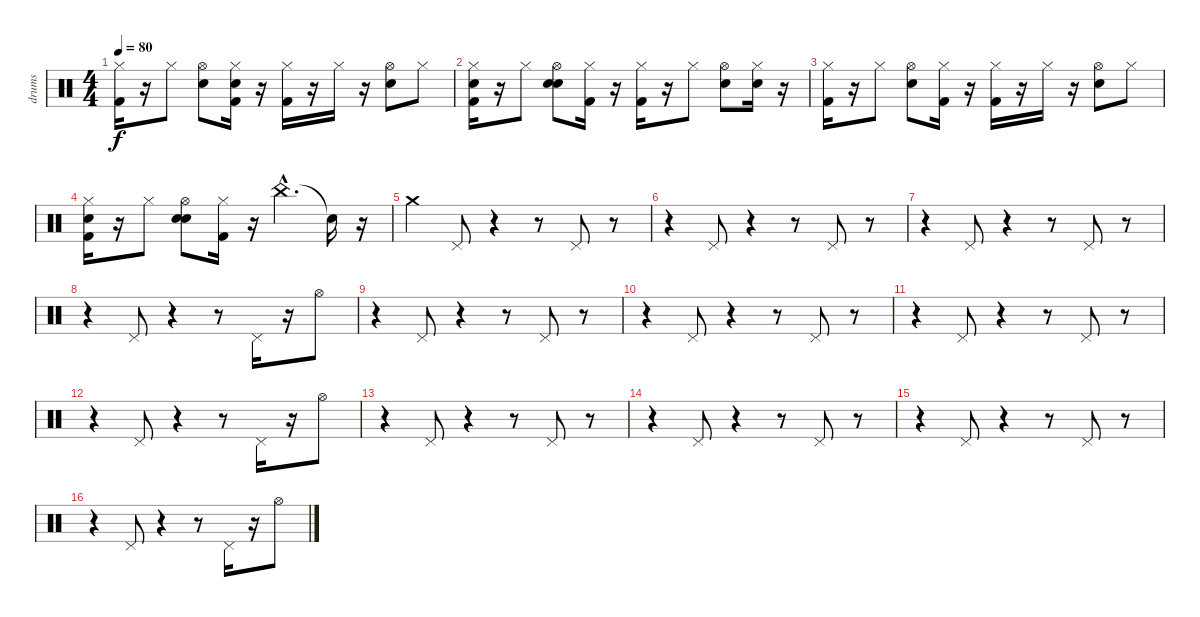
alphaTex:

\track ("drums" "drums") {instrument percussion}
\staff {score}
\articulation defaults
\ts (4 4)
\tempo 80
\clef neutral
\ks c
("Hi-Hat (closed)" "Kick (hit) 2").16{dy f} r.16 "Hi-Hat (closed)".8 ("Hi-Hat (open)" "Snare (hit) 2").8 ("Snare (hit)" "Kick (hit) 2" "Hi-Hat (closed)").16 r.16 ("Kick (hit) 2" "Hi-Hat (closed)").16 r.16 "Hi-Hat (closed)".16 r.16 ("Hi-Hat (open)" "Snare (hit) 2").8 "Hi-Hat (closed)".8 |
("Snare (hit)" "Kick (hit) 2" "Hi-Hat (closed)").16 r.16 "Hi-Hat (closed)".8 ("Snare (hit)" "Hi-Hat (open)" "Snare (hit) 2").8 ("Kick (hit) 2" "Hi-Hat (closed)").16 r.16 ("Hi-Hat (closed)" "Kick (hit) 2").16 r.16 "Hi-Hat (closed)".8 ("Snare (hit) 2" "Hi-Hat (open)").8 ("Snare (hit)" "Hi-Hat (closed)").16 r.16 |
("Kick (hit) 2" "Hi-Hat (closed)").16 r.16 "Hi-Hat (closed)".8 ("Hi-Hat (open)" "Snare (hit) 2").8 ("Kick (hit) 2" "Hi-Hat (closed)").16 r.16 ("Kick (hit) 2" "Hi-Hat (closed)").16 r.16 "Hi-Hat (closed)".16 r.16 ("Snare (hit) 2" "Hi-Hat (open)").8 "Hi-Hat (closed)".8 |
("Snare (hit)" "Hi-Hat (closed)" "Kick (hit) 2").16 r.16 "Hi-Hat (closed)".8 ("Snare (hit)" "Hi-Hat (open)" "Snare (hit) 2").8 ("Kick (hit) 2" "Hi-Hat (closed)").16 r.16 "China (hit)"{hac}.4{d} "Snare (hit)"{t}.16 r.16 |
"Crash medium (hit)".4 "Pedal Hi-Hat (hit)".8 r.4 r.8 "Pedal Hi-Hat (hit)".8 r.8 |
r.4 "Pedal Hi-Hat (hit)".8 r.4 r.8 "Pedal Hi-Hat (hit)".8 r.8 |
r.4 "Pedal Hi-Hat (hit)".8 r.4 r.8 "Pedal Hi-Hat (hit)".8 r.8 |
r.4 "Pedal Hi-Hat (hit)".8 r.4 r.8 "Pedal Hi-Hat (hit)".16 r.16 "Hi-Hat (open)".8 |
r.4 "Pedal Hi-Hat (hit)".8 r.4 r.8 "Pedal Hi-Hat (hit)".8 r.8 |
r.4 "Pedal Hi-Hat (hit)".8 r.4 r.8 "Pedal Hi-Hat (hit)".8 r.8 |
r.4 "Pedal Hi-Hat (hit)".8 r.4 r.8 "Pedal Hi-Hat (hit)".8 r.8 |
r.4 "Pedal Hi-Hat (hit)".8 r.4 r.8 "Pedal Hi-Hat (hit)".16 r.16 "Hi-Hat (open)".8 |
r.4 "Pedal Hi-Hat (hit)".8 r.4 r.8 "Pedal Hi-Hat (hit)".8 r.8 |
r.4 "Pedal Hi-Hat (hit)".8 r.4 r.8 "Pedal Hi-Hat (hit)".8 r.8 |
r.4 "Pedal Hi-Hat (hit)".8 r.4 r.8 "Pedal Hi-Hat (hit)".8 r.8 |
r.4 "Pedal Hi-Hat (hit)".8 r.4 r.8 "Pedal Hi-Hat (hit)".16 r.16 "Hi-Hat (open)".8
